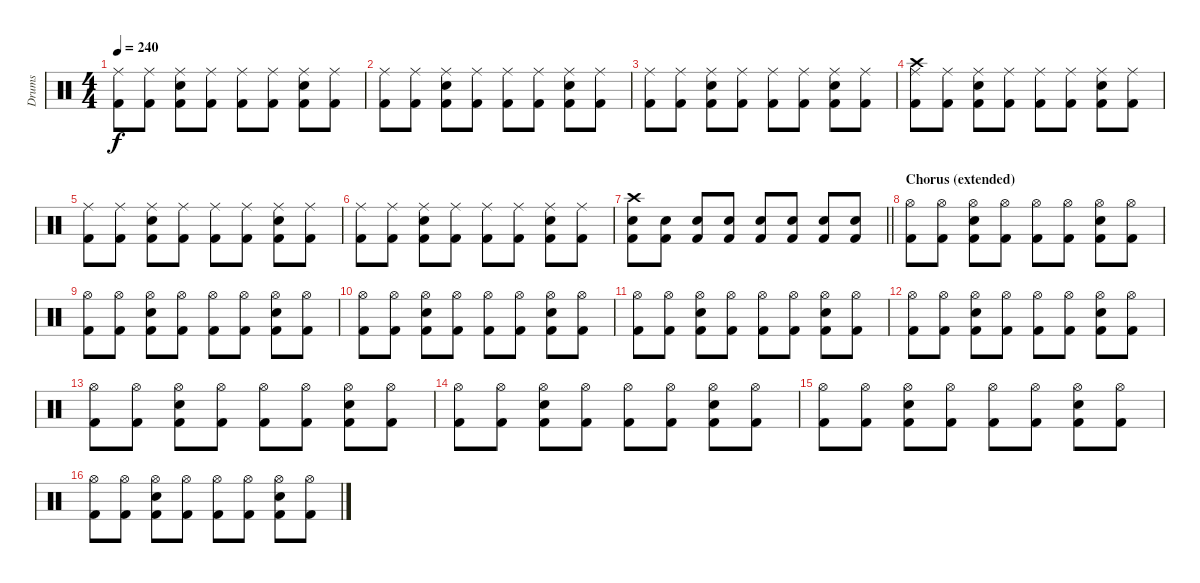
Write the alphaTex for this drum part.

\track ("Drums" "Drums") {instrument percussion}
\staff {score}
\articulation defaults
\ts (4 4)
\tempo 240
\clef neutral
\ks c
("Ride (middle)" "Kick (hit) 2").8{dy f} ("Ride (middle)" "Kick (hit) 2").8 ("Ride (middle)" "Snare (hit) 2" "Kick (hit) 2").8 ("Ride (middle)" "Kick (hit) 2").8 ("Ride (middle)" "Kick (hit) 2").8 ("Ride (middle)" "Kick (hit) 2").8 ("Ride (middle)" "Snare (hit) 2" "Kick (hit) 2").8 ("Ride (middle)" "Kick (hit) 2").8 |
("Ride (middle)" "Kick (hit) 2").8 ("Ride (middle)" "Kick (hit) 2").8 ("Ride (middle)" "Snare (hit) 2" "Kick (hit) 2").8 ("Ride (middle)" "Kick (hit) 2").8 ("Ride (middle)" "Kick (hit) 2").8 ("Ride (middle)" "Kick (hit) 2").8 ("Ride (middle)" "Snare (hit) 2" "Kick (hit) 2").8 ("Ride (middle)" "Kick (hit) 2").8 |
("Ride (middle)" "Kick (hit) 2").8 ("Ride (middle)" "Kick (hit) 2").8 ("Ride (middle)" "Snare (hit) 2" "Kick (hit) 2").8 ("Ride (middle)" "Kick (hit) 2").8 ("Ride (middle)" "Kick (hit) 2").8 ("Ride (middle)" "Kick (hit) 2").8 ("Ride (middle)" "Snare (hit) 2" "Kick (hit) 2").8 ("Ride (middle)" "Kick (hit) 2").8 |
("Crash high (hit)" "Ride (middle)" "Kick (hit) 2").8 ("Ride (middle)" "Kick (hit) 2").8 ("Ride (middle)" "Snare (hit) 2" "Kick (hit) 2").8 ("Ride (middle)" "Kick (hit) 2").8 ("Ride (middle)" "Kick (hit) 2").8 ("Ride (middle)" "Kick (hit) 2").8 ("Ride (middle)" "Snare (hit) 2" "Kick (hit) 2").8 ("Ride (middle)" "Kick (hit) 2").8 |
("Ride (middle)" "Kick (hit) 2").8 ("Ride (middle)" "Kick (hit) 2").8 ("Ride (middle)" "Snare (hit) 2" "Kick (hit) 2").8 ("Ride (middle)" "Kick (hit) 2").8 ("Ride (middle)" "Kick (hit) 2").8 ("Ride (middle)" "Kick (hit) 2").8 ("Ride (middle)" "Snare (hit) 2" "Kick (hit) 2").8 ("Ride (middle)" "Kick (hit) 2").8 |
("Ride (middle)" "Kick (hit) 2").8 ("Ride (middle)" "Kick (hit) 2").8 ("Ride (middle)" "Snare (hit) 2" "Kick (hit) 2").8 ("Ride (middle)" "Kick (hit) 2").8 ("Ride (middle)" "Kick (hit) 2").8 ("Ride (middle)" "Kick (hit) 2").8 ("Ride (middle)" "Snare (hit) 2" "Kick (hit) 2").8 ("Ride (middle)" "Kick (hit) 2").8 |
\barLineRight lightlight
("Crash high (hit)" "Snare (hit) 2" "Kick (hit) 2").8 ("Snare (hit) 2" "Kick (hit) 2").8 ("Snare (hit) 2" "Kick (hit) 2").8 ("Snare (hit) 2" "Kick (hit) 2").8 ("Snare (hit) 2" "Kick (hit) 2").8 ("Snare (hit) 2" "Kick (hit) 2").8 ("Snare (hit) 2" "Kick (hit) 2").8 ("Snare (hit) 2" "Kick (hit) 2").8 |
\section ("" "Chorus (extended)")
("Kick (hit) 2" "Hi-Hat (open)").8 ("Kick (hit) 2" "Hi-Hat (open)").8 ("Kick (hit) 2" "Snare (hit) 2" "Hi-Hat (open)").8 ("Kick (hit) 2" "Hi-Hat (open)").8 ("Kick (hit) 2" "Hi-Hat (open)").8 ("Kick (hit) 2" "Hi-Hat (open)").8 ("Kick (hit) 2" "Snare (hit) 2" "Hi-Hat (open)").8 ("Kick (hit) 2" "Hi-Hat (open)").8 |
("Kick (hit) 2" "Hi-Hat (open)").8 ("Kick (hit) 2" "Hi-Hat (open)").8 ("Kick (hit) 2" "Snare (hit) 2" "Hi-Hat (open)").8 ("Kick (hit) 2" "Hi-Hat (open)").8 ("Kick (hit) 2" "Hi-Hat (open)").8 ("Kick (hit) 2" "Hi-Hat (open)").8 ("Kick (hit) 2" "Snare (hit) 2" "Hi-Hat (open)").8 ("Kick (hit) 2" "Hi-Hat (open)").8 |
("Kick (hit) 2" "Hi-Hat (open)").8 ("Kick (hit) 2" "Hi-Hat (open)").8 ("Kick (hit) 2" "Snare (hit) 2" "Hi-Hat (open)").8 ("Kick (hit) 2" "Hi-Hat (open)").8 ("Kick (hit) 2" "Hi-Hat (open)").8 ("Kick (hit) 2" "Hi-Hat (open)").8 ("Kick (hit) 2" "Snare (hit) 2" "Hi-Hat (open)").8 ("Kick (hit) 2" "Hi-Hat (open)").8 |
("Kick (hit) 2" "Hi-Hat (open)").8 ("Kick (hit) 2" "Hi-Hat (open)").8 ("Kick (hit) 2" "Snare (hit) 2" "Hi-Hat (open)").8 ("Kick (hit) 2" "Hi-Hat (open)").8 ("Kick (hit) 2" "Hi-Hat (open)").8 ("Kick (hit) 2" "Hi-Hat (open)").8 ("Kick (hit) 2" "Snare (hit) 2" "Hi-Hat (open)").8 ("Kick (hit) 2" "Hi-Hat (open)").8 |
("Kick (hit) 2" "Hi-Hat (open)").8 ("Kick (hit) 2" "Hi-Hat (open)").8 ("Kick (hit) 2" "Snare (hit) 2" "Hi-Hat (open)").8 ("Kick (hit) 2" "Hi-Hat (open)").8 ("Kick (hit) 2" "Hi-Hat (open)").8 ("Kick (hit) 2" "Hi-Hat (open)").8 ("Kick (hit) 2" "Snare (hit) 2" "Hi-Hat (open)").8 ("Kick (hit) 2" "Hi-Hat (open)").8 |
("Kick (hit) 2" "Hi-Hat (open)").8 ("Kick (hit) 2" "Hi-Hat (open)").8 ("Kick (hit) 2" "Snare (hit) 2" "Hi-Hat (open)").8 ("Kick (hit) 2" "Hi-Hat (open)").8 ("Kick (hit) 2" "Hi-Hat (open)").8 ("Kick (hit) 2" "Hi-Hat (open)").8 ("Kick (hit) 2" "Snare (hit) 2" "Hi-Hat (open)").8 ("Kick (hit) 2" "Hi-Hat (open)").8 |
("Kick (hit) 2" "Hi-Hat (open)").8 ("Kick (hit) 2" "Hi-Hat (open)").8 ("Kick (hit) 2" "Snare (hit) 2" "Hi-Hat (open)").8 ("Kick (hit) 2" "Hi-Hat (open)").8 ("Kick (hit) 2" "Hi-Hat (open)").8 ("Kick (hit) 2" "Hi-Hat (open)").8 ("Kick (hit) 2" "Snare (hit) 2" "Hi-Hat (open)").8 ("Kick (hit) 2" "Hi-Hat (open)").8 |
("Kick (hit) 2" "Hi-Hat (open)").8 ("Kick (hit) 2" "Hi-Hat (open)").8 ("Kick (hit) 2" "Snare (hit) 2" "Hi-Hat (open)").8 ("Kick (hit) 2" "Hi-Hat (open)").8 ("Kick (hit) 2" "Hi-Hat (open)").8 ("Kick (hit) 2" "Hi-Hat (open)").8 ("Kick (hit) 2" "Snare (hit) 2" "Hi-Hat (open)").8 ("Kick (hit) 2" "Hi-Hat (open)").8 |
("Kick (hit) 2" "Hi-Hat (open)").8 ("Kick (hit) 2" "Hi-Hat (open)").8 ("Kick (hit) 2" "Snare (hit) 2" "Hi-Hat (open)").8 ("Kick (hit) 2" "Hi-Hat (open)").8 ("Kick (hit) 2" "Hi-Hat (open)").8 ("Kick (hit) 2" "Hi-Hat (open)").8 ("Kick (hit) 2" "Snare (hit) 2" "Hi-Hat (open)").8 ("Kick (hit) 2" "Hi-Hat (open)").8
